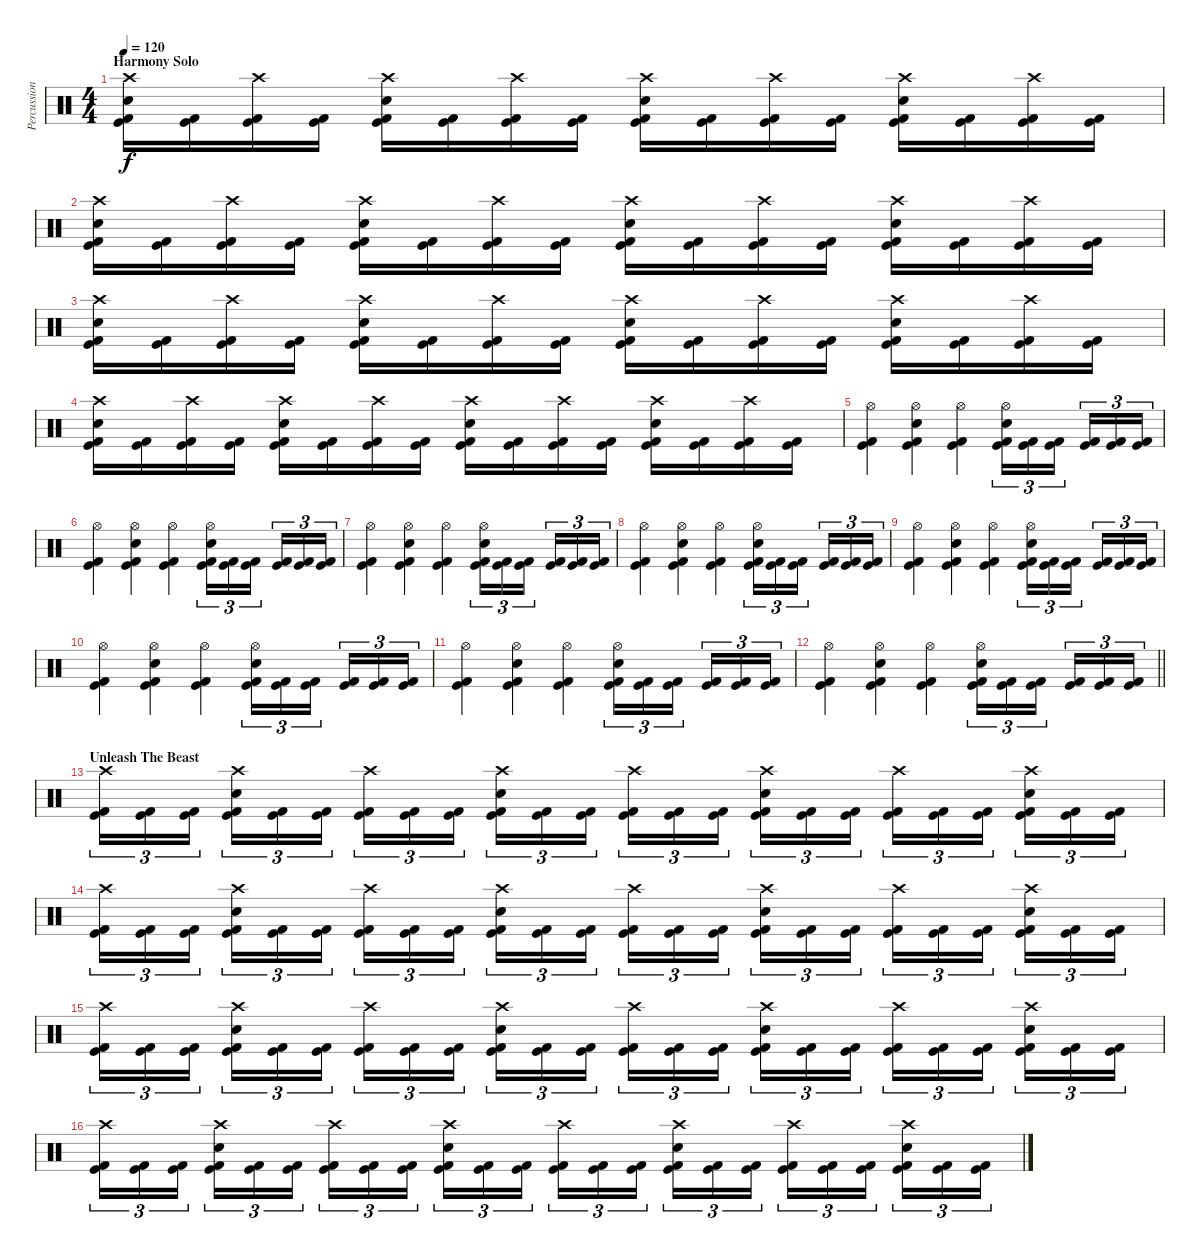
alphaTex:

\track ("Percussion" "Percussion") {instrument percussion}
\staff {score}
\articulation defaults
\ts (4 4)
\section ("" "Harmony Solo")
\tempo 120
\clef neutral
\ks c
("Crash high (hit)" "Electric Snare (hit)" "Kick (hit)" "Kick (hit) 2").16{dy f} ("Kick (hit)" "Kick (hit) 2").16 ("Crash high (hit)" "Kick (hit)" "Kick (hit) 2").16 ("Kick (hit)" "Kick (hit) 2").16 ("Crash high (hit)" "Electric Snare (hit)" "Kick (hit)" "Kick (hit) 2").16 ("Kick (hit)" "Kick (hit) 2").16 ("Crash high (hit)" "Kick (hit)" "Kick (hit) 2").16 ("Kick (hit)" "Kick (hit) 2").16 ("Crash high (hit)" "Electric Snare (hit)" "Kick (hit)" "Kick (hit) 2").16 ("Kick (hit)" "Kick (hit) 2").16 ("Crash high (hit)" "Kick (hit)" "Kick (hit) 2").16 ("Kick (hit)" "Kick (hit) 2").16 ("Crash high (hit)" "Electric Snare (hit)" "Kick (hit)" "Kick (hit) 2").16 ("Kick (hit)" "Kick (hit) 2").16 ("Crash high (hit)" "Kick (hit)" "Kick (hit) 2").16 ("Kick (hit)" "Kick (hit) 2").16 |
("Crash high (hit)" "Electric Snare (hit)" "Kick (hit)" "Kick (hit) 2").16 ("Kick (hit)" "Kick (hit) 2").16 ("Crash high (hit)" "Kick (hit)" "Kick (hit) 2").16 ("Kick (hit)" "Kick (hit) 2").16 ("Crash high (hit)" "Electric Snare (hit)" "Kick (hit)" "Kick (hit) 2").16 ("Kick (hit)" "Kick (hit) 2").16 ("Crash high (hit)" "Kick (hit)" "Kick (hit) 2").16 ("Kick (hit)" "Kick (hit) 2").16 ("Crash high (hit)" "Electric Snare (hit)" "Kick (hit)" "Kick (hit) 2").16 ("Kick (hit)" "Kick (hit) 2").16 ("Crash high (hit)" "Kick (hit)" "Kick (hit) 2").16 ("Kick (hit)" "Kick (hit) 2").16 ("Crash high (hit)" "Electric Snare (hit)" "Kick (hit)" "Kick (hit) 2").16 ("Kick (hit)" "Kick (hit) 2").16 ("Crash high (hit)" "Kick (hit)" "Kick (hit) 2").16 ("Kick (hit)" "Kick (hit) 2").16 |
("Crash high (hit)" "Electric Snare (hit)" "Kick (hit)" "Kick (hit) 2").16 ("Kick (hit)" "Kick (hit) 2").16 ("Crash high (hit)" "Kick (hit)" "Kick (hit) 2").16 ("Kick (hit)" "Kick (hit) 2").16 ("Crash high (hit)" "Electric Snare (hit)" "Kick (hit)" "Kick (hit) 2").16 ("Kick (hit)" "Kick (hit) 2").16 ("Crash high (hit)" "Kick (hit)" "Kick (hit) 2").16 ("Kick (hit)" "Kick (hit) 2").16 ("Crash high (hit)" "Electric Snare (hit)" "Kick (hit)" "Kick (hit) 2").16 ("Kick (hit)" "Kick (hit) 2").16 ("Crash high (hit)" "Kick (hit)" "Kick (hit) 2").16 ("Kick (hit)" "Kick (hit) 2").16 ("Crash high (hit)" "Electric Snare (hit)" "Kick (hit)" "Kick (hit) 2").16 ("Kick (hit)" "Kick (hit) 2").16 ("Crash high (hit)" "Kick (hit)" "Kick (hit) 2").16 ("Kick (hit)" "Kick (hit) 2").16 |
("Crash high (hit)" "Electric Snare (hit)" "Kick (hit)" "Kick (hit) 2").16 ("Kick (hit)" "Kick (hit) 2").16 ("Crash high (hit)" "Kick (hit)" "Kick (hit) 2").16 ("Kick (hit)" "Kick (hit) 2").16 ("Crash high (hit)" "Electric Snare (hit)" "Kick (hit)" "Kick (hit) 2").16 ("Kick (hit)" "Kick (hit) 2").16 ("Crash high (hit)" "Kick (hit)" "Kick (hit) 2").16 ("Kick (hit)" "Kick (hit) 2").16 ("Crash high (hit)" "Electric Snare (hit)" "Kick (hit)" "Kick (hit) 2").16 ("Kick (hit)" "Kick (hit) 2").16 ("Crash high (hit)" "Kick (hit)" "Kick (hit) 2").16 ("Kick (hit)" "Kick (hit) 2").16 ("Crash high (hit)" "Electric Snare (hit)" "Kick (hit)" "Kick (hit) 2").16 ("Kick (hit)" "Kick (hit) 2").16 ("Crash high (hit)" "Kick (hit)" "Kick (hit) 2").16 ("Kick (hit)" "Kick (hit) 2").16 |
("Hi-Hat (open)" "Kick (hit) 2" "Kick (hit)").4 ("Hi-Hat (open)" "Electric Snare (hit)" "Kick (hit) 2" "Kick (hit)").4 ("Hi-Hat (open)" "Kick (hit) 2" "Kick (hit)").4 ("Hi-Hat (open)" "Electric Snare (hit)" "Kick (hit) 2" "Kick (hit)").16{tu (3 2)} ("Kick (hit) 2" "Kick (hit)").16{tu (3 2)} ("Kick (hit) 2" "Kick (hit)").16{tu (3 2) beam splitsecondary} ("Kick (hit) 2" "Kick (hit)").16{tu (3 2)} ("Kick (hit) 2" "Kick (hit)").16{tu (3 2)} ("Kick (hit) 2" "Kick (hit)").16{tu (3 2)} |
("Hi-Hat (open)" "Kick (hit) 2" "Kick (hit)").4 ("Hi-Hat (open)" "Electric Snare (hit)" "Kick (hit) 2" "Kick (hit)").4 ("Hi-Hat (open)" "Kick (hit) 2" "Kick (hit)").4 ("Hi-Hat (open)" "Electric Snare (hit)" "Kick (hit) 2" "Kick (hit)").16{tu (3 2)} ("Kick (hit) 2" "Kick (hit)").16{tu (3 2)} ("Kick (hit) 2" "Kick (hit)").16{tu (3 2) beam splitsecondary} ("Kick (hit) 2" "Kick (hit)").16{tu (3 2)} ("Kick (hit) 2" "Kick (hit)").16{tu (3 2)} ("Kick (hit) 2" "Kick (hit)").16{tu (3 2)} |
("Hi-Hat (open)" "Kick (hit) 2" "Kick (hit)").4 ("Hi-Hat (open)" "Electric Snare (hit)" "Kick (hit) 2" "Kick (hit)").4 ("Hi-Hat (open)" "Kick (hit) 2" "Kick (hit)").4 ("Hi-Hat (open)" "Electric Snare (hit)" "Kick (hit) 2" "Kick (hit)").16{tu (3 2)} ("Kick (hit) 2" "Kick (hit)").16{tu (3 2)} ("Kick (hit) 2" "Kick (hit)").16{tu (3 2) beam splitsecondary} ("Kick (hit) 2" "Kick (hit)").16{tu (3 2)} ("Kick (hit) 2" "Kick (hit)").16{tu (3 2)} ("Kick (hit) 2" "Kick (hit)").16{tu (3 2)} |
("Hi-Hat (open)" "Kick (hit) 2" "Kick (hit)").4 ("Hi-Hat (open)" "Electric Snare (hit)" "Kick (hit) 2" "Kick (hit)").4 ("Hi-Hat (open)" "Kick (hit) 2" "Kick (hit)").4 ("Hi-Hat (open)" "Electric Snare (hit)" "Kick (hit) 2" "Kick (hit)").16{tu (3 2)} ("Kick (hit) 2" "Kick (hit)").16{tu (3 2)} ("Kick (hit) 2" "Kick (hit)").16{tu (3 2) beam splitsecondary} ("Kick (hit) 2" "Kick (hit)").16{tu (3 2)} ("Kick (hit) 2" "Kick (hit)").16{tu (3 2)} ("Kick (hit) 2" "Kick (hit)").16{tu (3 2)} |
("Hi-Hat (open)" "Kick (hit) 2" "Kick (hit)").4 ("Hi-Hat (open)" "Electric Snare (hit)" "Kick (hit) 2" "Kick (hit)").4 ("Hi-Hat (open)" "Kick (hit) 2" "Kick (hit)").4 ("Hi-Hat (open)" "Electric Snare (hit)" "Kick (hit) 2" "Kick (hit)").16{tu (3 2)} ("Kick (hit) 2" "Kick (hit)").16{tu (3 2)} ("Kick (hit) 2" "Kick (hit)").16{tu (3 2) beam splitsecondary} ("Kick (hit) 2" "Kick (hit)").16{tu (3 2)} ("Kick (hit) 2" "Kick (hit)").16{tu (3 2)} ("Kick (hit) 2" "Kick (hit)").16{tu (3 2)} |
("Hi-Hat (open)" "Kick (hit) 2" "Kick (hit)").4 ("Hi-Hat (open)" "Electric Snare (hit)" "Kick (hit) 2" "Kick (hit)").4 ("Hi-Hat (open)" "Kick (hit) 2" "Kick (hit)").4 ("Hi-Hat (open)" "Electric Snare (hit)" "Kick (hit) 2" "Kick (hit)").16{tu (3 2)} ("Kick (hit) 2" "Kick (hit)").16{tu (3 2)} ("Kick (hit) 2" "Kick (hit)").16{tu (3 2) beam splitsecondary} ("Kick (hit) 2" "Kick (hit)").16{tu (3 2)} ("Kick (hit) 2" "Kick (hit)").16{tu (3 2)} ("Kick (hit) 2" "Kick (hit)").16{tu (3 2)} |
("Hi-Hat (open)" "Kick (hit) 2" "Kick (hit)").4 ("Hi-Hat (open)" "Electric Snare (hit)" "Kick (hit) 2" "Kick (hit)").4 ("Hi-Hat (open)" "Kick (hit) 2" "Kick (hit)").4 ("Hi-Hat (open)" "Electric Snare (hit)" "Kick (hit) 2" "Kick (hit)").16{tu (3 2)} ("Kick (hit) 2" "Kick (hit)").16{tu (3 2)} ("Kick (hit) 2" "Kick (hit)").16{tu (3 2) beam splitsecondary} ("Kick (hit) 2" "Kick (hit)").16{tu (3 2)} ("Kick (hit) 2" "Kick (hit)").16{tu (3 2)} ("Kick (hit) 2" "Kick (hit)").16{tu (3 2)} |
\barLineRight lightlight
("Hi-Hat (open)" "Kick (hit) 2" "Kick (hit)").4 ("Hi-Hat (open)" "Electric Snare (hit)" "Kick (hit) 2" "Kick (hit)").4 ("Hi-Hat (open)" "Kick (hit) 2" "Kick (hit)").4 ("Hi-Hat (open)" "Electric Snare (hit)" "Kick (hit) 2" "Kick (hit)").16{tu (3 2)} ("Kick (hit) 2" "Kick (hit)").16{tu (3 2)} ("Kick (hit) 2" "Kick (hit)").16{tu (3 2) beam splitsecondary} ("Kick (hit) 2" "Kick (hit)").16{tu (3 2)} ("Kick (hit) 2" "Kick (hit)").16{tu (3 2)} ("Kick (hit) 2" "Kick (hit)").16{tu (3 2)} |
\section ("" "Unleash The Beast")
("Crash high (hit)" "Kick (hit) 2" "Kick (hit)").16{tu (3 2)} ("Kick (hit) 2" "Kick (hit)").16{tu (3 2)} ("Kick (hit) 2" "Kick (hit)").16{tu (3 2) beam splitsecondary} ("Crash high (hit)" "Electric Snare (hit)" "Kick (hit) 2" "Kick (hit)").16{tu (3 2)} ("Kick (hit) 2" "Kick (hit)").16{tu (3 2)} ("Kick (hit) 2" "Kick (hit)").16{tu (3 2)} ("Crash high (hit)" "Kick (hit) 2" "Kick (hit)").16{tu (3 2)} ("Kick (hit) 2" "Kick (hit)").16{tu (3 2)} ("Kick (hit) 2" "Kick (hit)").16{tu (3 2) beam splitsecondary} ("Crash high (hit)" "Electric Snare (hit)" "Kick (hit) 2" "Kick (hit)").16{tu (3 2)} ("Kick (hit) 2" "Kick (hit)").16{tu (3 2)} ("Kick (hit) 2" "Kick (hit)").16{tu (3 2)} ("Crash high (hit)" "Kick (hit) 2" "Kick (hit)").16{tu (3 2)} ("Kick (hit) 2" "Kick (hit)").16{tu (3 2)} ("Kick (hit) 2" "Kick (hit)").16{tu (3 2) beam splitsecondary} ("Crash high (hit)" "Electric Snare (hit)" "Kick (hit) 2" "Kick (hit)").16{tu (3 2)} ("Kick (hit) 2" "Kick (hit)").16{tu (3 2)} ("Kick (hit) 2" "Kick (hit)").16{tu (3 2)} ("Crash high (hit)" "Kick (hit) 2" "Kick (hit)").16{tu (3 2)} ("Kick (hit) 2" "Kick (hit)").16{tu (3 2)} ("Kick (hit) 2" "Kick (hit)").16{tu (3 2) beam splitsecondary} ("Crash high (hit)" "Electric Snare (hit)" "Kick (hit) 2" "Kick (hit)").16{tu (3 2)} ("Kick (hit) 2" "Kick (hit)").16{tu (3 2)} ("Kick (hit) 2" "Kick (hit)").16{tu (3 2)} |
("Crash high (hit)" "Kick (hit) 2" "Kick (hit)").16{tu (3 2)} ("Kick (hit) 2" "Kick (hit)").16{tu (3 2)} ("Kick (hit) 2" "Kick (hit)").16{tu (3 2) beam splitsecondary} ("Crash high (hit)" "Electric Snare (hit)" "Kick (hit) 2" "Kick (hit)").16{tu (3 2)} ("Kick (hit) 2" "Kick (hit)").16{tu (3 2)} ("Kick (hit) 2" "Kick (hit)").16{tu (3 2)} ("Crash high (hit)" "Kick (hit) 2" "Kick (hit)").16{tu (3 2)} ("Kick (hit) 2" "Kick (hit)").16{tu (3 2)} ("Kick (hit) 2" "Kick (hit)").16{tu (3 2) beam splitsecondary} ("Crash high (hit)" "Electric Snare (hit)" "Kick (hit) 2" "Kick (hit)").16{tu (3 2)} ("Kick (hit) 2" "Kick (hit)").16{tu (3 2)} ("Kick (hit) 2" "Kick (hit)").16{tu (3 2)} ("Crash high (hit)" "Kick (hit) 2" "Kick (hit)").16{tu (3 2)} ("Kick (hit) 2" "Kick (hit)").16{tu (3 2)} ("Kick (hit) 2" "Kick (hit)").16{tu (3 2) beam splitsecondary} ("Crash high (hit)" "Electric Snare (hit)" "Kick (hit) 2" "Kick (hit)").16{tu (3 2)} ("Kick (hit) 2" "Kick (hit)").16{tu (3 2)} ("Kick (hit) 2" "Kick (hit)").16{tu (3 2)} ("Crash high (hit)" "Kick (hit) 2" "Kick (hit)").16{tu (3 2)} ("Kick (hit) 2" "Kick (hit)").16{tu (3 2)} ("Kick (hit) 2" "Kick (hit)").16{tu (3 2) beam splitsecondary} ("Crash high (hit)" "Electric Snare (hit)" "Kick (hit) 2" "Kick (hit)").16{tu (3 2)} ("Kick (hit) 2" "Kick (hit)").16{tu (3 2)} ("Kick (hit) 2" "Kick (hit)").16{tu (3 2)} |
("Crash high (hit)" "Kick (hit) 2" "Kick (hit)").16{tu (3 2)} ("Kick (hit) 2" "Kick (hit)").16{tu (3 2)} ("Kick (hit) 2" "Kick (hit)").16{tu (3 2) beam splitsecondary} ("Crash high (hit)" "Electric Snare (hit)" "Kick (hit) 2" "Kick (hit)").16{tu (3 2)} ("Kick (hit) 2" "Kick (hit)").16{tu (3 2)} ("Kick (hit) 2" "Kick (hit)").16{tu (3 2)} ("Crash high (hit)" "Kick (hit) 2" "Kick (hit)").16{tu (3 2)} ("Kick (hit) 2" "Kick (hit)").16{tu (3 2)} ("Kick (hit) 2" "Kick (hit)").16{tu (3 2) beam splitsecondary} ("Crash high (hit)" "Electric Snare (hit)" "Kick (hit) 2" "Kick (hit)").16{tu (3 2)} ("Kick (hit) 2" "Kick (hit)").16{tu (3 2)} ("Kick (hit) 2" "Kick (hit)").16{tu (3 2)} ("Crash high (hit)" "Kick (hit) 2" "Kick (hit)").16{tu (3 2)} ("Kick (hit) 2" "Kick (hit)").16{tu (3 2)} ("Kick (hit) 2" "Kick (hit)").16{tu (3 2) beam splitsecondary} ("Crash high (hit)" "Electric Snare (hit)" "Kick (hit) 2" "Kick (hit)").16{tu (3 2)} ("Kick (hit) 2" "Kick (hit)").16{tu (3 2)} ("Kick (hit) 2" "Kick (hit)").16{tu (3 2)} ("Crash high (hit)" "Kick (hit) 2" "Kick (hit)").16{tu (3 2)} ("Kick (hit) 2" "Kick (hit)").16{tu (3 2)} ("Kick (hit) 2" "Kick (hit)").16{tu (3 2) beam splitsecondary} ("Crash high (hit)" "Electric Snare (hit)" "Kick (hit) 2" "Kick (hit)").16{tu (3 2)} ("Kick (hit) 2" "Kick (hit)").16{tu (3 2)} ("Kick (hit) 2" "Kick (hit)").16{tu (3 2)} |
("Crash high (hit)" "Kick (hit) 2" "Kick (hit)").16{tu (3 2)} ("Kick (hit) 2" "Kick (hit)").16{tu (3 2)} ("Kick (hit) 2" "Kick (hit)").16{tu (3 2) beam splitsecondary} ("Crash high (hit)" "Electric Snare (hit)" "Kick (hit) 2" "Kick (hit)").16{tu (3 2)} ("Kick (hit) 2" "Kick (hit)").16{tu (3 2)} ("Kick (hit) 2" "Kick (hit)").16{tu (3 2)} ("Crash high (hit)" "Kick (hit) 2" "Kick (hit)").16{tu (3 2)} ("Kick (hit) 2" "Kick (hit)").16{tu (3 2)} ("Kick (hit) 2" "Kick (hit)").16{tu (3 2) beam splitsecondary} ("Crash high (hit)" "Electric Snare (hit)" "Kick (hit) 2" "Kick (hit)").16{tu (3 2)} ("Kick (hit) 2" "Kick (hit)").16{tu (3 2)} ("Kick (hit) 2" "Kick (hit)").16{tu (3 2)} ("Crash high (hit)" "Kick (hit) 2" "Kick (hit)").16{tu (3 2)} ("Kick (hit) 2" "Kick (hit)").16{tu (3 2)} ("Kick (hit) 2" "Kick (hit)").16{tu (3 2) beam splitsecondary} ("Crash high (hit)" "Electric Snare (hit)" "Kick (hit) 2" "Kick (hit)").16{tu (3 2)} ("Kick (hit) 2" "Kick (hit)").16{tu (3 2)} ("Kick (hit) 2" "Kick (hit)").16{tu (3 2)} ("Crash high (hit)" "Kick (hit) 2" "Kick (hit)").16{tu (3 2)} ("Kick (hit) 2" "Kick (hit)").16{tu (3 2)} ("Kick (hit) 2" "Kick (hit)").16{tu (3 2) beam splitsecondary} ("Crash high (hit)" "Electric Snare (hit)" "Kick (hit) 2" "Kick (hit)").16{tu (3 2)} ("Kick (hit) 2" "Kick (hit)").16{tu (3 2)} ("Kick (hit) 2" "Kick (hit)").16{tu (3 2)}
